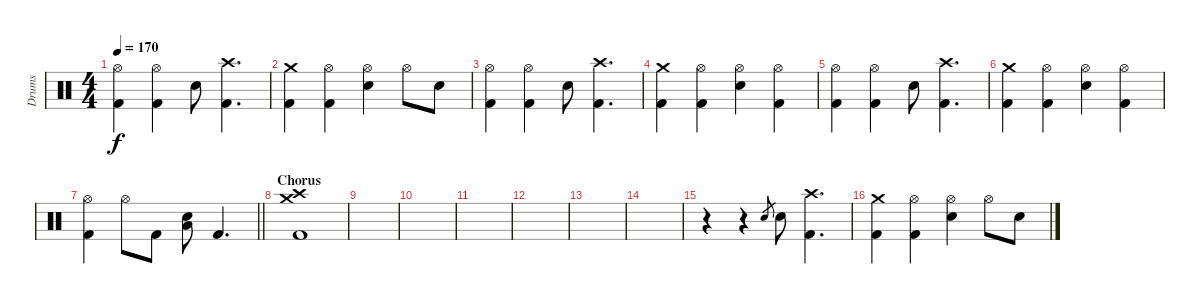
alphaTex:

\track ("Drums" "Drums") {instrument percussion}
\staff {score}
\articulation defaults
\ts (4 4)
\tempo 170
\clef neutral
\ks c
("Hi-Hat (open)" "Kick (hit) 2").4{dy f} ("Hi-Hat (open)" "Kick (hit) 2").4 "Electric Snare (hit)".8 ("Crash high (hit)" "Kick (hit) 2").4{d} |
("Crash medium (hit)" "Kick (hit) 2").4 ("Hi-Hat (open)" "Kick (hit) 2").4 ("Hi-Hat (open)" "Electric Snare (hit)").4 "Hi-Hat (open)".8 "Electric Snare (hit)".8 |
("Hi-Hat (open)" "Kick (hit) 2").4 ("Hi-Hat (open)" "Kick (hit) 2").4 "Electric Snare (hit)".8 ("Crash high (hit)" "Kick (hit) 2").4{d} |
("Crash medium (hit)" "Kick (hit) 2").4 ("Hi-Hat (open)" "Kick (hit) 2").4 ("Hi-Hat (open)" "Electric Snare (hit)").4 ("Hi-Hat (open)" "Kick (hit) 2").4 |
("Hi-Hat (open)" "Kick (hit) 2").4 ("Hi-Hat (open)" "Kick (hit) 2").4 "Electric Snare (hit)".8 ("Crash high (hit)" "Kick (hit) 2").4{d} |
("Crash medium (hit)" "Kick (hit) 2").4 ("Hi-Hat (open)" "Kick (hit) 2").4 ("Hi-Hat (open)" "Electric Snare (hit)").4 ("Hi-Hat (open)" "Kick (hit) 2").4 |
\barLineRight lightlight
("Hi-Hat (open)" "Kick (hit) 2").4 "Hi-Hat (open)".8 "Kick (hit) 2".8 ("Low Tom (hit)" "Electric Snare (hit)").8 "Kick (hit) 2".4{d} |
\section ("" "Chorus")
("Crash medium (hit)" "Crash high (hit)" "Kick (hit) 2").1 |
|
|
|
|
|
|
r.4 r.4 "Electric Snare (hit)".8{gr} "Electric Snare (hit)".8 ("Crash high (hit)" "Kick (hit) 2").4{d} |
("Crash medium (hit)" "Kick (hit) 2").4 ("Hi-Hat (open)" "Kick (hit) 2").4 ("Hi-Hat (open)" "Electric Snare (hit)").4 "Hi-Hat (open)".8 "Electric Snare (hit)".8
